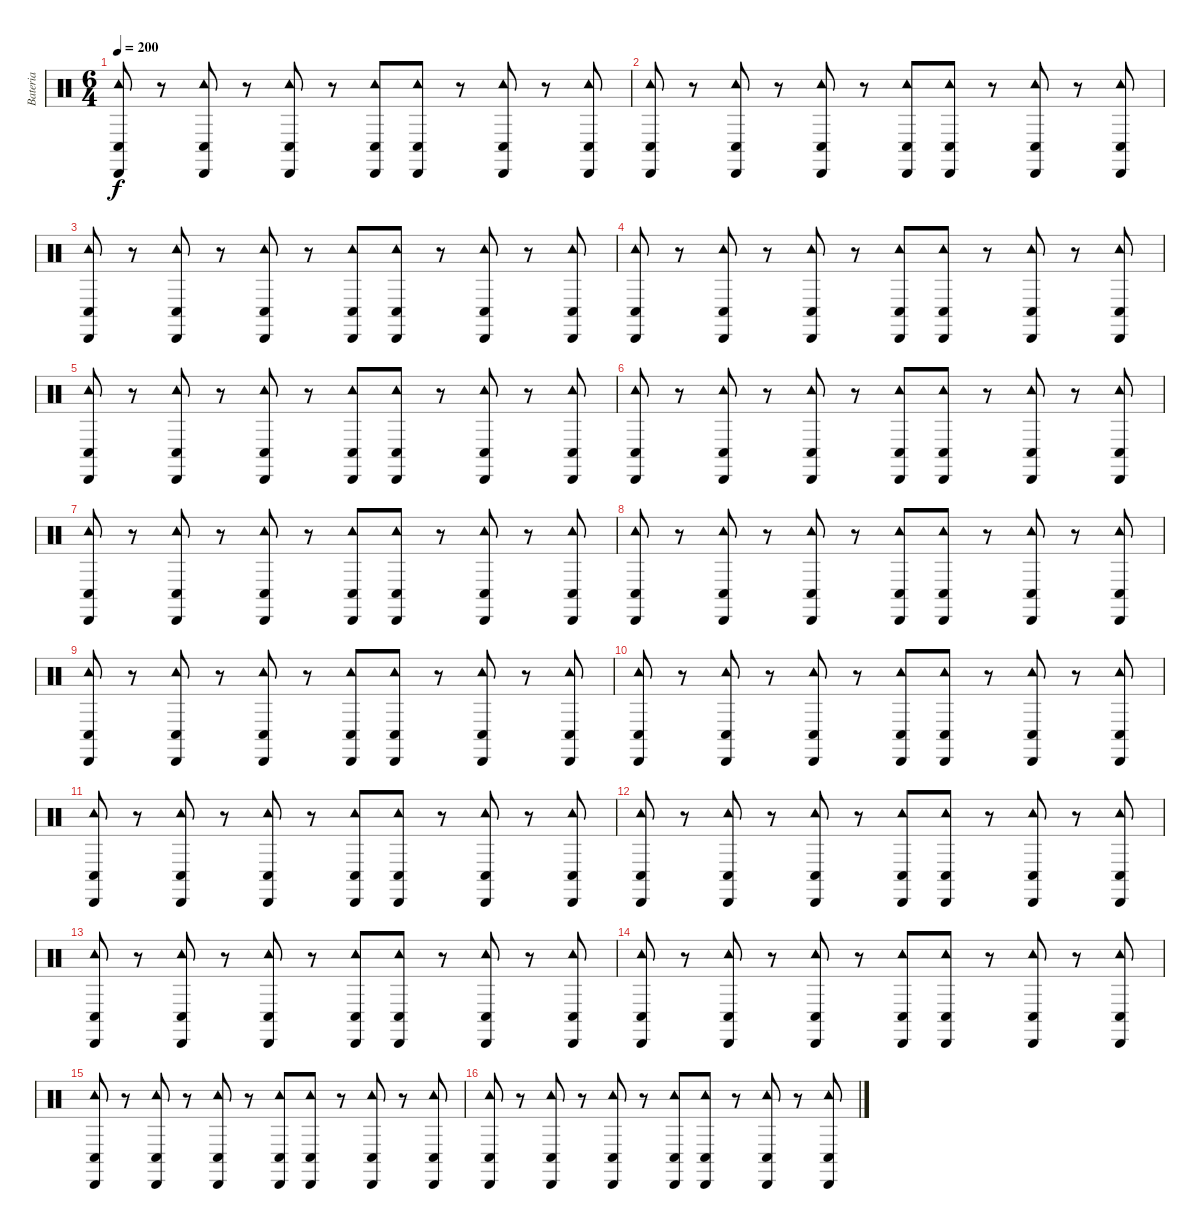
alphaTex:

\track ("Bateria" "Bateria") {instrument percussion}
\staff {score}
\articulation defaults
\ts (6 4)
\tempo 200
\clef neutral
\ks c
("Conga low (hit)" "Cabasa (hit)" "Tambourine (hit)").8{dy f} r.8 ("Conga low (hit)" "Cabasa (hit)" "Tambourine (hit)").8 r.8 ("Conga low (hit)" "Cabasa (hit)" "Tambourine (hit)").8 r.8 ("Conga low (hit)" "Cabasa (hit)" "Tambourine (hit)").8 ("Conga low (hit)" "Cabasa (hit)" "Tambourine (hit)").8 r.8 ("Conga low (hit)" "Cabasa (hit)" "Tambourine (hit)").8 r.8 ("Conga low (hit)" "Cabasa (hit)" "Tambourine (hit)").8 |
("Conga low (hit)" "Cabasa (hit)" "Tambourine (hit)").8 r.8 ("Conga low (hit)" "Cabasa (hit)" "Tambourine (hit)").8 r.8 ("Conga low (hit)" "Cabasa (hit)" "Tambourine (hit)").8 r.8 ("Conga low (hit)" "Cabasa (hit)" "Tambourine (hit)").8 ("Conga low (hit)" "Cabasa (hit)" "Tambourine (hit)").8 r.8 ("Conga low (hit)" "Cabasa (hit)" "Tambourine (hit)").8 r.8 ("Conga low (hit)" "Cabasa (hit)" "Tambourine (hit)").8 |
("Conga low (hit)" "Cabasa (hit)" "Tambourine (hit)").8 r.8 ("Conga low (hit)" "Cabasa (hit)" "Tambourine (hit)").8 r.8 ("Conga low (hit)" "Cabasa (hit)" "Tambourine (hit)").8 r.8 ("Conga low (hit)" "Cabasa (hit)" "Tambourine (hit)").8 ("Conga low (hit)" "Cabasa (hit)" "Tambourine (hit)").8 r.8 ("Conga low (hit)" "Cabasa (hit)" "Tambourine (hit)").8 r.8 ("Conga low (hit)" "Cabasa (hit)" "Tambourine (hit)").8 |
("Conga low (hit)" "Cabasa (hit)" "Tambourine (hit)").8 r.8 ("Conga low (hit)" "Cabasa (hit)" "Tambourine (hit)").8 r.8 ("Conga low (hit)" "Cabasa (hit)" "Tambourine (hit)").8 r.8 ("Conga low (hit)" "Cabasa (hit)" "Tambourine (hit)").8 ("Conga low (hit)" "Cabasa (hit)" "Tambourine (hit)").8 r.8 ("Conga low (hit)" "Cabasa (hit)" "Tambourine (hit)").8 r.8 ("Conga low (hit)" "Cabasa (hit)" "Tambourine (hit)").8 |
("Conga low (hit)" "Cabasa (hit)" "Tambourine (hit)").8 r.8 ("Conga low (hit)" "Cabasa (hit)" "Tambourine (hit)").8 r.8 ("Conga low (hit)" "Cabasa (hit)" "Tambourine (hit)").8 r.8 ("Conga low (hit)" "Cabasa (hit)" "Tambourine (hit)").8 ("Conga low (hit)" "Cabasa (hit)" "Tambourine (hit)").8 r.8 ("Conga low (hit)" "Cabasa (hit)" "Tambourine (hit)").8 r.8 ("Conga low (hit)" "Cabasa (hit)" "Tambourine (hit)").8 |
("Conga low (hit)" "Cabasa (hit)" "Tambourine (hit)").8 r.8 ("Conga low (hit)" "Cabasa (hit)" "Tambourine (hit)").8 r.8 ("Conga low (hit)" "Cabasa (hit)" "Tambourine (hit)").8 r.8 ("Conga low (hit)" "Cabasa (hit)" "Tambourine (hit)").8 ("Conga low (hit)" "Cabasa (hit)" "Tambourine (hit)").8 r.8 ("Conga low (hit)" "Cabasa (hit)" "Tambourine (hit)").8 r.8 ("Conga low (hit)" "Cabasa (hit)" "Tambourine (hit)").8 |
("Conga low (hit)" "Cabasa (hit)" "Tambourine (hit)").8 r.8 ("Conga low (hit)" "Cabasa (hit)" "Tambourine (hit)").8 r.8 ("Conga low (hit)" "Cabasa (hit)" "Tambourine (hit)").8 r.8 ("Conga low (hit)" "Cabasa (hit)" "Tambourine (hit)").8 ("Conga low (hit)" "Cabasa (hit)" "Tambourine (hit)").8 r.8 ("Conga low (hit)" "Cabasa (hit)" "Tambourine (hit)").8 r.8 ("Conga low (hit)" "Cabasa (hit)" "Tambourine (hit)").8 |
("Conga low (hit)" "Cabasa (hit)" "Tambourine (hit)").8 r.8 ("Conga low (hit)" "Cabasa (hit)" "Tambourine (hit)").8 r.8 ("Conga low (hit)" "Cabasa (hit)" "Tambourine (hit)").8 r.8 ("Conga low (hit)" "Cabasa (hit)" "Tambourine (hit)").8 ("Conga low (hit)" "Cabasa (hit)" "Tambourine (hit)").8 r.8 ("Conga low (hit)" "Cabasa (hit)" "Tambourine (hit)").8 r.8 ("Conga low (hit)" "Cabasa (hit)" "Tambourine (hit)").8 |
("Conga low (hit)" "Cabasa (hit)" "Tambourine (hit)").8 r.8 ("Conga low (hit)" "Cabasa (hit)" "Tambourine (hit)").8 r.8 ("Conga low (hit)" "Cabasa (hit)" "Tambourine (hit)").8 r.8 ("Conga low (hit)" "Cabasa (hit)" "Tambourine (hit)").8 ("Conga low (hit)" "Cabasa (hit)" "Tambourine (hit)").8 r.8 ("Conga low (hit)" "Cabasa (hit)" "Tambourine (hit)").8 r.8 ("Conga low (hit)" "Cabasa (hit)" "Tambourine (hit)").8 |
("Conga low (hit)" "Cabasa (hit)" "Tambourine (hit)").8 r.8 ("Conga low (hit)" "Cabasa (hit)" "Tambourine (hit)").8 r.8 ("Conga low (hit)" "Cabasa (hit)" "Tambourine (hit)").8 r.8 ("Conga low (hit)" "Cabasa (hit)" "Tambourine (hit)").8 ("Conga low (hit)" "Cabasa (hit)" "Tambourine (hit)").8 r.8 ("Conga low (hit)" "Cabasa (hit)" "Tambourine (hit)").8 r.8 ("Conga low (hit)" "Cabasa (hit)" "Tambourine (hit)").8 |
("Conga low (hit)" "Cabasa (hit)" "Tambourine (hit)").8 r.8 ("Conga low (hit)" "Cabasa (hit)" "Tambourine (hit)").8 r.8 ("Conga low (hit)" "Cabasa (hit)" "Tambourine (hit)").8 r.8 ("Conga low (hit)" "Cabasa (hit)" "Tambourine (hit)").8 ("Conga low (hit)" "Cabasa (hit)" "Tambourine (hit)").8 r.8 ("Conga low (hit)" "Cabasa (hit)" "Tambourine (hit)").8 r.8 ("Conga low (hit)" "Cabasa (hit)" "Tambourine (hit)").8 |
("Conga low (hit)" "Cabasa (hit)" "Tambourine (hit)").8 r.8 ("Conga low (hit)" "Cabasa (hit)" "Tambourine (hit)").8 r.8 ("Conga low (hit)" "Cabasa (hit)" "Tambourine (hit)").8 r.8 ("Conga low (hit)" "Cabasa (hit)" "Tambourine (hit)").8 ("Conga low (hit)" "Cabasa (hit)" "Tambourine (hit)").8 r.8 ("Conga low (hit)" "Cabasa (hit)" "Tambourine (hit)").8 r.8 ("Conga low (hit)" "Cabasa (hit)" "Tambourine (hit)").8 |
("Conga low (hit)" "Cabasa (hit)" "Tambourine (hit)").8 r.8 ("Conga low (hit)" "Cabasa (hit)" "Tambourine (hit)").8 r.8 ("Conga low (hit)" "Cabasa (hit)" "Tambourine (hit)").8 r.8 ("Conga low (hit)" "Cabasa (hit)" "Tambourine (hit)").8 ("Conga low (hit)" "Cabasa (hit)" "Tambourine (hit)").8 r.8 ("Conga low (hit)" "Cabasa (hit)" "Tambourine (hit)").8 r.8 ("Conga low (hit)" "Cabasa (hit)" "Tambourine (hit)").8 |
("Conga low (hit)" "Cabasa (hit)" "Tambourine (hit)").8 r.8 ("Conga low (hit)" "Cabasa (hit)" "Tambourine (hit)").8 r.8 ("Conga low (hit)" "Cabasa (hit)" "Tambourine (hit)").8 r.8 ("Conga low (hit)" "Cabasa (hit)" "Tambourine (hit)").8 ("Conga low (hit)" "Cabasa (hit)" "Tambourine (hit)").8 r.8 ("Conga low (hit)" "Cabasa (hit)" "Tambourine (hit)").8 r.8 ("Conga low (hit)" "Cabasa (hit)" "Tambourine (hit)").8 |
("Conga low (hit)" "Cabasa (hit)" "Tambourine (hit)").8 r.8 ("Conga low (hit)" "Cabasa (hit)" "Tambourine (hit)").8 r.8 ("Conga low (hit)" "Cabasa (hit)" "Tambourine (hit)").8 r.8 ("Conga low (hit)" "Cabasa (hit)" "Tambourine (hit)").8 ("Conga low (hit)" "Cabasa (hit)" "Tambourine (hit)").8 r.8 ("Conga low (hit)" "Cabasa (hit)" "Tambourine (hit)").8 r.8 ("Conga low (hit)" "Cabasa (hit)" "Tambourine (hit)").8 |
("Conga low (hit)" "Cabasa (hit)" "Tambourine (hit)").8 r.8 ("Conga low (hit)" "Cabasa (hit)" "Tambourine (hit)").8 r.8 ("Conga low (hit)" "Cabasa (hit)" "Tambourine (hit)").8 r.8 ("Conga low (hit)" "Cabasa (hit)" "Tambourine (hit)").8 ("Conga low (hit)" "Cabasa (hit)" "Tambourine (hit)").8 r.8 ("Conga low (hit)" "Cabasa (hit)" "Tambourine (hit)").8 r.8 ("Conga low (hit)" "Cabasa (hit)" "Tambourine (hit)").8
